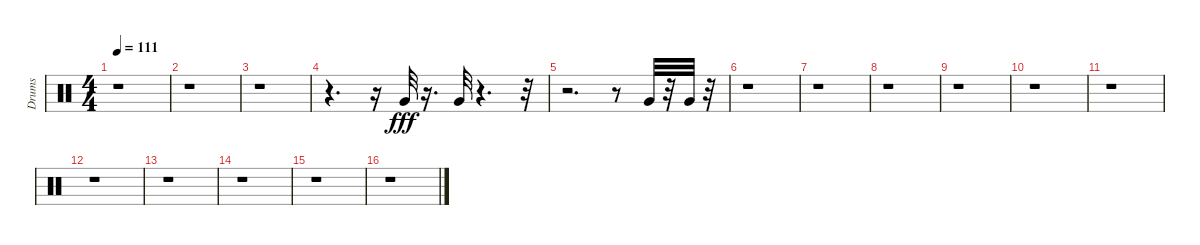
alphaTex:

\track ("Drums" "Drums") {instrument percussion}
\staff {score}
\articulation defaults
\ts (4 4)
\tempo 111
\clef neutral
\ks c
r.1{dy fff} |
r.1 |
r.1 |
r.4{d} r.16 "Very Low Tom (hit)".32 r.16{d} "Very Low Tom (hit)".32 r.4{d} r.32 |
r.2{d} r.8 "Very Low Tom (hit)".32 r.32 "Very Low Tom (hit)".32 r.32 |
r.1 |
r.1 |
r.1 |
r.1 |
r.1 |
r.1 |
r.1 |
r.1 |
r.1 |
r.1 |
r.1
